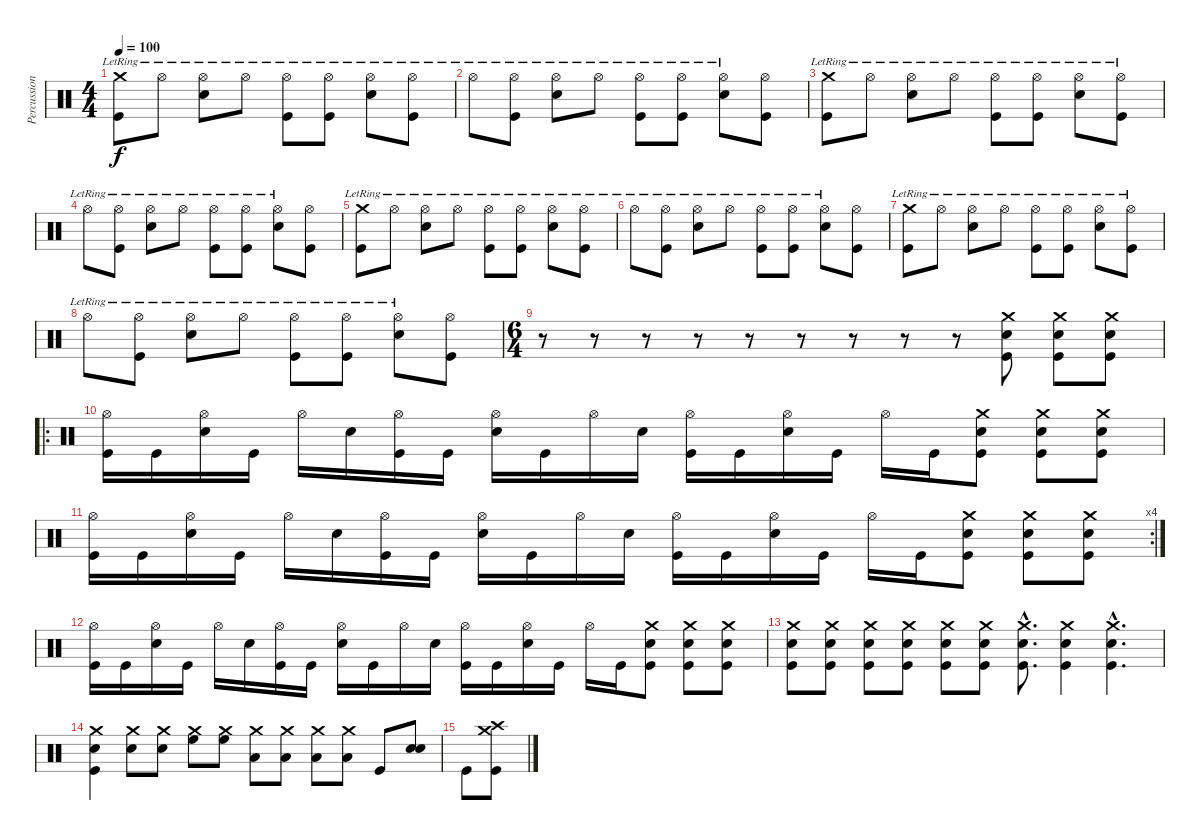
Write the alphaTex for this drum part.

\track ("Percussion" "Percussion") {instrument percussion}
\staff {score}
\articulation defaults
\ts (4 4)
\tempo 100
\clef neutral
\ks c
("Crash medium (hit)"{lr} "Kick (hit)").8{dy f} "Hi-Hat (open)"{lr}.8 ("Hi-Hat (open)"{lr} "Electric Snare (hit)").8 "Hi-Hat (open)"{lr}.8 ("Hi-Hat (open)"{lr} "Kick (hit)").8 ("Hi-Hat (open)"{lr} "Kick (hit)").8 ("Hi-Hat (open)"{lr} "Electric Snare (hit)").8 ("Hi-Hat (open)"{lr} "Kick (hit)").8 |
"Hi-Hat (open)"{lr}.8 ("Hi-Hat (open)"{lr} "Kick (hit)").8 ("Hi-Hat (open)"{lr} "Electric Snare (hit)").8 "Hi-Hat (open)"{lr}.8 ("Hi-Hat (open)"{lr} "Kick (hit)").8 ("Hi-Hat (open)"{lr} "Kick (hit)").8 ("Hi-Hat (open)"{lr} "Electric Snare (hit)").8 ("Hi-Hat (open)" "Kick (hit)").8 |
("Crash medium (hit)"{lr} "Kick (hit)").8 "Hi-Hat (open)"{lr}.8 ("Hi-Hat (open)"{lr} "Electric Snare (hit)").8 "Hi-Hat (open)"{lr}.8 ("Hi-Hat (open)"{lr} "Kick (hit)").8 ("Hi-Hat (open)"{lr} "Kick (hit)").8 ("Hi-Hat (open)"{lr} "Electric Snare (hit)").8 ("Hi-Hat (open)"{lr} "Kick (hit)").8 |
"Hi-Hat (open)"{lr}.8 ("Hi-Hat (open)"{lr} "Kick (hit)").8 ("Hi-Hat (open)"{lr} "Electric Snare (hit)").8 "Hi-Hat (open)"{lr}.8 ("Hi-Hat (open)"{lr} "Kick (hit)").8 ("Hi-Hat (open)"{lr} "Kick (hit)").8 ("Hi-Hat (open)"{lr} "Electric Snare (hit)").8 ("Hi-Hat (open)" "Kick (hit)").8 |
("Crash medium (hit)"{lr} "Kick (hit)").8 "Hi-Hat (open)"{lr}.8 ("Hi-Hat (open)"{lr} "Electric Snare (hit)").8 "Hi-Hat (open)"{lr}.8 ("Hi-Hat (open)"{lr} "Kick (hit)").8 ("Hi-Hat (open)"{lr} "Kick (hit)").8 ("Hi-Hat (open)"{lr} "Electric Snare (hit)").8 ("Hi-Hat (open)"{lr} "Kick (hit)").8 |
"Hi-Hat (open)"{lr}.8 ("Hi-Hat (open)"{lr} "Kick (hit)").8 ("Hi-Hat (open)"{lr} "Electric Snare (hit)").8 "Hi-Hat (open)"{lr}.8 ("Hi-Hat (open)"{lr} "Kick (hit)").8 ("Hi-Hat (open)"{lr} "Kick (hit)").8 ("Hi-Hat (open)"{lr} "Electric Snare (hit)").8 ("Hi-Hat (open)" "Kick (hit)").8 |
("Crash medium (hit)"{lr} "Kick (hit)").8 "Hi-Hat (open)"{lr}.8 ("Hi-Hat (open)"{lr} "Electric Snare (hit)").8 "Hi-Hat (open)"{lr}.8 ("Hi-Hat (open)"{lr} "Kick (hit)").8 ("Hi-Hat (open)"{lr} "Kick (hit)").8 ("Hi-Hat (open)"{lr} "Electric Snare (hit)").8 ("Hi-Hat (open)"{lr} "Kick (hit)").8 |
"Hi-Hat (open)"{lr}.8 ("Hi-Hat (open)"{lr} "Kick (hit)").8 ("Hi-Hat (open)"{lr} "Electric Snare (hit)").8 "Hi-Hat (open)"{lr}.8 ("Hi-Hat (open)"{lr} "Kick (hit)").8 ("Hi-Hat (open)"{lr} "Kick (hit)").8 ("Hi-Hat (open)"{lr} "Electric Snare (hit)").8 ("Hi-Hat (open)" "Kick (hit)").8 |
\ts (6 4)
r.8 r.8 r.8 r.8 r.8 r.8 r.8 r.8 r.8 ("Crash medium (hit)" "Electric Snare (hit)" "Kick (hit)").8 ("Crash medium (hit)" "Electric Snare (hit)" "Kick (hit)").8 ("Crash medium (hit)" "Electric Snare (hit)" "Kick (hit)").8 |
\ro
("Hi-Hat (open)" "Kick (hit)").16 "Kick (hit)".16 ("Hi-Hat (open)" "Electric Snare (hit)").16 "Kick (hit)".16 "Hi-Hat (open)".16 "Electric Snare (hit)".16 ("Hi-Hat (open)" "Kick (hit)").16 "Kick (hit)".16 ("Hi-Hat (open)" "Electric Snare (hit)").16 "Kick (hit)".16 "Hi-Hat (open)".16 "Electric Snare (hit)".16 ("Hi-Hat (open)" "Kick (hit)").16 "Kick (hit)".16 ("Hi-Hat (open)" "Electric Snare (hit)").16 "Kick (hit)".16 "Hi-Hat (open)".16 "Kick (hit)".16 ("Crash medium (hit)" "Kick (hit)" "Electric Snare (hit)").8 ("Crash medium (hit)" "Kick (hit)" "Electric Snare (hit)").8 ("Crash medium (hit)" "Kick (hit)" "Electric Snare (hit)").8 |
\rc 4
("Hi-Hat (open)" "Kick (hit)").16 "Kick (hit)".16 ("Hi-Hat (open)" "Electric Snare (hit)").16 "Kick (hit)".16 "Hi-Hat (open)".16 "Electric Snare (hit)".16 ("Hi-Hat (open)" "Kick (hit)").16 "Kick (hit)".16 ("Hi-Hat (open)" "Electric Snare (hit)").16 "Kick (hit)".16 "Hi-Hat (open)".16 "Electric Snare (hit)".16 ("Hi-Hat (open)" "Kick (hit)").16 "Kick (hit)".16 ("Hi-Hat (open)" "Electric Snare (hit)").16 "Kick (hit)".16 "Hi-Hat (open)".16 "Kick (hit)".16 ("Crash medium (hit)" "Kick (hit)" "Electric Snare (hit)").8 ("Crash medium (hit)" "Kick (hit)" "Electric Snare (hit)").8 ("Crash medium (hit)" "Kick (hit)" "Electric Snare (hit)").8 |
("Hi-Hat (open)" "Kick (hit)").16 "Kick (hit)".16 ("Hi-Hat (open)" "Electric Snare (hit)").16 "Kick (hit)".16 "Hi-Hat (open)".16 "Electric Snare (hit)".16 ("Hi-Hat (open)" "Kick (hit)").16 "Kick (hit)".16 ("Hi-Hat (open)" "Electric Snare (hit)").16 "Kick (hit)".16 "Hi-Hat (open)".16 "Electric Snare (hit)".16 ("Hi-Hat (open)" "Kick (hit)").16 "Kick (hit)".16 ("Hi-Hat (open)" "Electric Snare (hit)").16 "Kick (hit)".16 "Hi-Hat (open)".16 "Kick (hit)".16 ("Crash medium (hit)" "Kick (hit)" "Electric Snare (hit)").8 ("Crash medium (hit)" "Kick (hit)" "Electric Snare (hit)").8 ("Crash medium (hit)" "Kick (hit)" "Electric Snare (hit)").8 |
("Crash medium (hit)" "Electric Snare (hit)" "Kick (hit)").8 ("Crash medium (hit)" "Electric Snare (hit)" "Kick (hit)").8 ("Crash medium (hit)" "Electric Snare (hit)" "Kick (hit)").8 ("Crash medium (hit)" "Electric Snare (hit)" "Kick (hit)").8 ("Crash medium (hit)" "Electric Snare (hit)" "Kick (hit)").8 ("Crash medium (hit)" "Electric Snare (hit)" "Kick (hit)").8 ("Crash medium (hit)"{hac} "Electric Snare (hit)"{hac} "Kick (hit)"{hac}).8{d} ("Crash medium (hit)" "Electric Snare (hit)" "Kick (hit)").4 ("Crash medium (hit)"{hac} "Electric Snare (hit)"{hac} "Kick (hit)"{hac}).4{d} |
("Crash medium (hit)" "Electric Snare (hit)" "Kick (hit)").4 ("Crash medium (hit)" "Electric Snare (hit)").8 ("Crash medium (hit)" "Electric Snare (hit)").8 ("Crash medium (hit)" "High Floor Tom (hit)").8 ("Crash medium (hit)" "High Floor Tom (hit)").8 ("Crash medium (hit)" "Low Tom (hit)").8 ("Crash medium (hit)" "Low Tom (hit)").8 ("Crash medium (hit)" "Low Floor Tom (hit)").8 ("Crash medium (hit)" "Low Floor Tom (hit)").8 "Kick (hit)".8 ("Electric Snare (hit)" "Electric Snare (hit)").8 |
"Kick (hit)".8 ("Crash high (hit)" "Crash medium (hit)" "Kick (hit)").8
